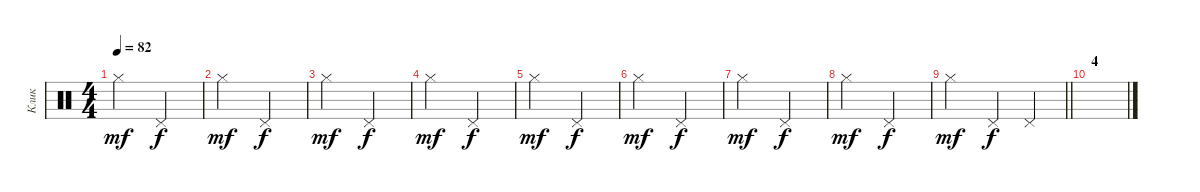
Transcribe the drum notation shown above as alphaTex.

\track ("Клик" "Клик") {mute instrument percussion}
\staff {score}
\articulation defaults
\ts (4 4)
\tempo 82
\clef neutral
\ks c "Hi-Hat (closed)".2{dy mf} "Pedal Hi-Hat (hit)".2{dy f}
|
"Hi-Hat (closed)".2{dy mf} "Pedal Hi-Hat (hit)".2{dy f} |
"Hi-Hat (closed)".2{dy mf} "Pedal Hi-Hat (hit)".2{dy f} |
"Hi-Hat (closed)".2{dy mf} "Pedal Hi-Hat (hit)".2{dy f} |
"Hi-Hat (closed)".2{dy mf} "Pedal Hi-Hat (hit)".2{dy f} |
"Hi-Hat (closed)".2{dy mf} "Pedal Hi-Hat (hit)".2{dy f} |
"Hi-Hat (closed)".2{dy mf} "Pedal Hi-Hat (hit)".2{dy f} |
"Hi-Hat (closed)".2{dy mf} "Pedal Hi-Hat (hit)".2{dy f} |
\barLineRight lightlight "Hi-Hat (closed)".2{dy mf} "Pedal Hi-Hat (hit)".4{dy f} "Pedal Hi-Hat (hit)".4
|
\section ("" "4")
